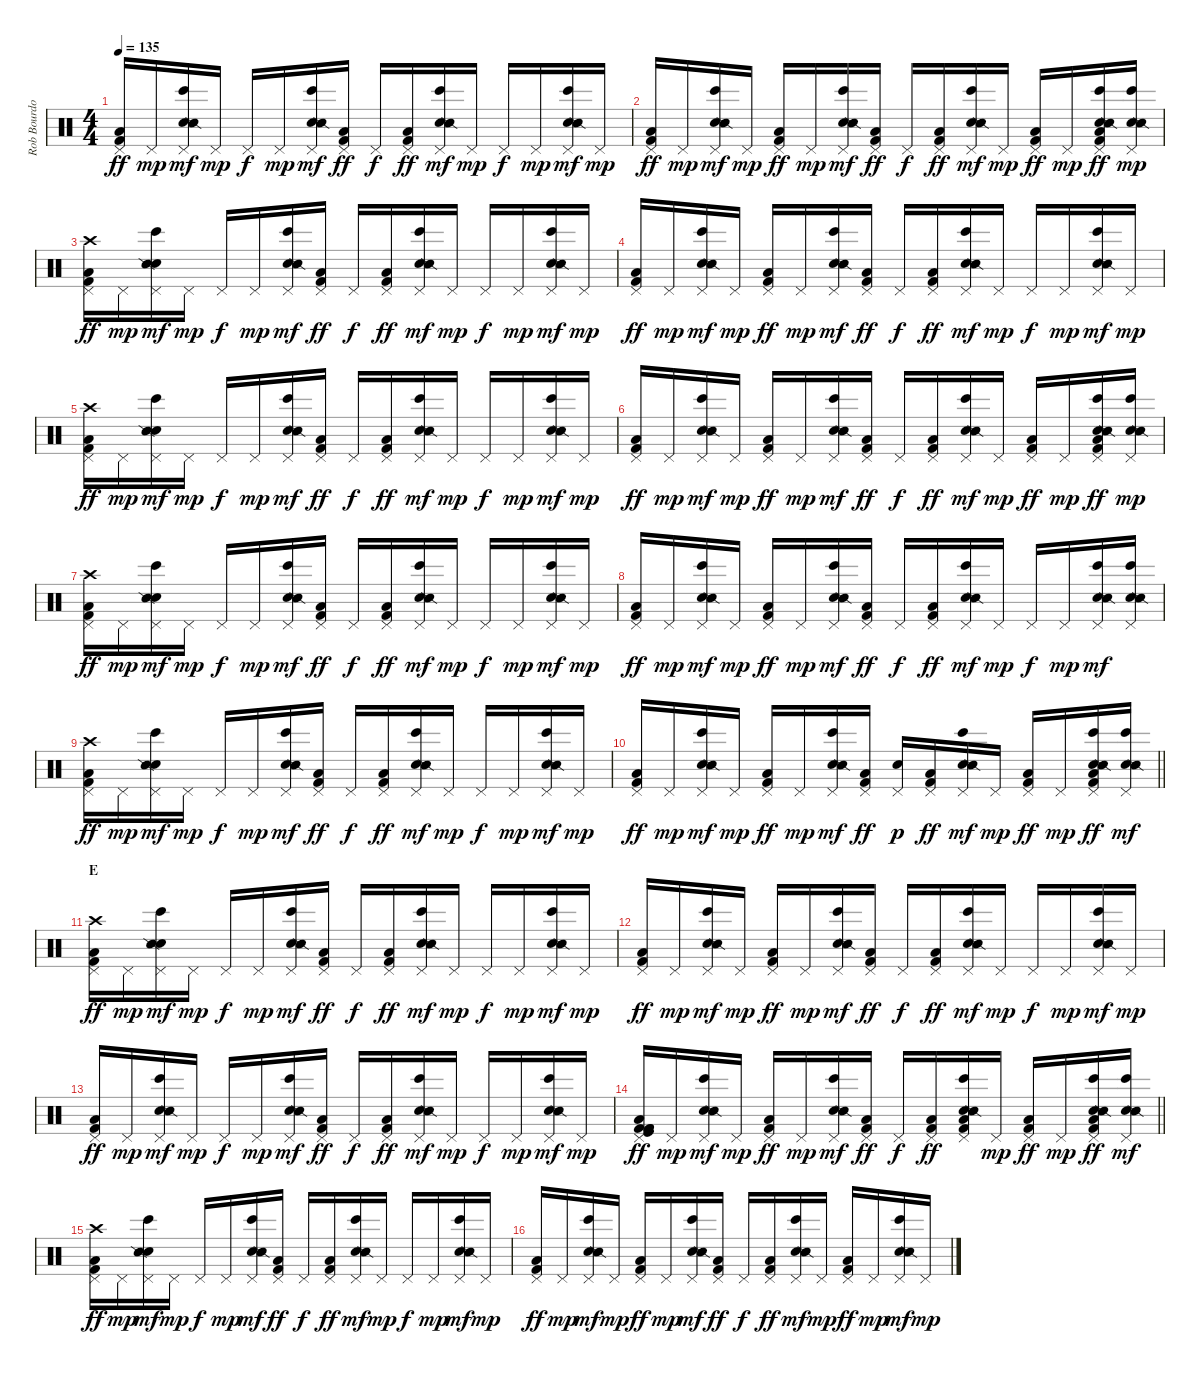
\track ("Rob Bourdon - Beats & Drums" "Rob Bourdo") {instrument percussion}
\staff {score}
\articulation defaults
\ts (4 4)
\tempo 135
\clef neutral
\ks c
("Low Floor Tom (hit)" "Pedal Hi-Hat (hit)" "Kick (hit) 2").16{dy ff} "Pedal Hi-Hat (hit)".16{dy mp} ("Bongo High (hit)" "Electric Snare (hit)" "Snare (side stick) 2" "Pedal Hi-Hat (hit)").16{dy mf} "Pedal Hi-Hat (hit)".16{dy mp} "Pedal Hi-Hat (hit)".16{dy f} "Pedal Hi-Hat (hit)".16{dy mp} ("Bongo High (hit)" "Electric Snare (hit)" "Snare (side stick) 2" "Pedal Hi-Hat (hit)").16{dy mf} ("Low Floor Tom (hit)" "Pedal Hi-Hat (hit)" "Kick (hit) 2").16{dy ff} "Pedal Hi-Hat (hit)".16{dy f} ("Low Floor Tom (hit)" "Pedal Hi-Hat (hit)" "Kick (hit) 2").16{dy ff} ("Bongo High (hit)" "Electric Snare (hit)" "Snare (side stick) 2" "Pedal Hi-Hat (hit)").16{dy mf} "Pedal Hi-Hat (hit)".16{dy mp} "Pedal Hi-Hat (hit)".16{dy f} "Pedal Hi-Hat (hit)".16{dy mp} ("Bongo High (hit)" "Electric Snare (hit)" "Snare (side stick) 2" "Pedal Hi-Hat (hit)").16{dy mf} "Pedal Hi-Hat (hit)".16{dy mp} |
("Low Floor Tom (hit)" "Pedal Hi-Hat (hit)" "Kick (hit) 2").16{dy ff} "Pedal Hi-Hat (hit)".16{dy mp} ("Bongo High (hit)" "Electric Snare (hit)" "Snare (side stick) 2" "Pedal Hi-Hat (hit)").16{dy mf} "Pedal Hi-Hat (hit)".16{dy mp} ("Low Floor Tom (hit)" "Pedal Hi-Hat (hit)" "Kick (hit) 2").16{dy ff} "Pedal Hi-Hat (hit)".16{dy mp} ("Bongo High (hit)" "Electric Snare (hit)" "Snare (side stick) 2" "Pedal Hi-Hat (hit)").16{dy mf} ("Low Floor Tom (hit)" "Pedal Hi-Hat (hit)" "Kick (hit) 2").16{dy ff} "Pedal Hi-Hat (hit)".16{dy f} ("Low Floor Tom (hit)" "Pedal Hi-Hat (hit)" "Kick (hit) 2").16{dy ff} ("Bongo High (hit)" "Electric Snare (hit)" "Snare (side stick) 2" "Pedal Hi-Hat (hit)").16{dy mf} "Pedal Hi-Hat (hit)".16{dy mp} ("Low Floor Tom (hit)" "Pedal Hi-Hat (hit)" "Kick (hit) 2").16{dy ff} "Pedal Hi-Hat (hit)".16{dy mp} ("Low Floor Tom (hit)" "Bongo High (hit)" "Electric Snare (hit)" "Snare (side stick) 2" "Pedal Hi-Hat (hit)" "Kick (hit) 2").16{dy ff} ("Bongo High (hit)" "Electric Snare (hit)" "Snare (side stick) 2" "Pedal Hi-Hat (hit)").16{dy mp} |
("Crash high (hit)" "Low Floor Tom (hit)" "Pedal Hi-Hat (hit)" "Kick (hit) 2").16{dy ff} "Pedal Hi-Hat (hit)".16{dy mp} ("Bongo High (hit)" "Electric Snare (hit)" "Snare (side stick) 2" "Pedal Hi-Hat (hit)").16{dy mf} "Pedal Hi-Hat (hit)".16{dy mp} "Pedal Hi-Hat (hit)".16{dy f} "Pedal Hi-Hat (hit)".16{dy mp} ("Bongo High (hit)" "Electric Snare (hit)" "Snare (side stick) 2" "Pedal Hi-Hat (hit)").16{dy mf} ("Low Floor Tom (hit)" "Pedal Hi-Hat (hit)" "Kick (hit) 2").16{dy ff} "Pedal Hi-Hat (hit)".16{dy f} ("Low Floor Tom (hit)" "Pedal Hi-Hat (hit)" "Kick (hit) 2").16{dy ff} ("Bongo High (hit)" "Electric Snare (hit)" "Snare (side stick) 2" "Pedal Hi-Hat (hit)").16{dy mf} "Pedal Hi-Hat (hit)".16{dy mp} "Pedal Hi-Hat (hit)".16{dy f} "Pedal Hi-Hat (hit)".16{dy mp} ("Bongo High (hit)" "Electric Snare (hit)" "Snare (side stick) 2" "Pedal Hi-Hat (hit)").16{dy mf} "Pedal Hi-Hat (hit)".16{dy mp} |
("Low Floor Tom (hit)" "Pedal Hi-Hat (hit)" "Kick (hit) 2").16{dy ff} "Pedal Hi-Hat (hit)".16{dy mp} ("Bongo High (hit)" "Electric Snare (hit)" "Snare (side stick) 2" "Pedal Hi-Hat (hit)").16{dy mf} "Pedal Hi-Hat (hit)".16{dy mp} ("Low Floor Tom (hit)" "Pedal Hi-Hat (hit)" "Kick (hit) 2").16{dy ff} "Pedal Hi-Hat (hit)".16{dy mp} ("Bongo High (hit)" "Electric Snare (hit)" "Snare (side stick) 2" "Pedal Hi-Hat (hit)").16{dy mf} ("Low Floor Tom (hit)" "Pedal Hi-Hat (hit)" "Kick (hit) 2").16{dy ff} "Pedal Hi-Hat (hit)".16{dy f} ("Low Floor Tom (hit)" "Pedal Hi-Hat (hit)" "Kick (hit) 2").16{dy ff} ("Bongo High (hit)" "Electric Snare (hit)" "Snare (side stick) 2" "Pedal Hi-Hat (hit)").16{dy mf} "Pedal Hi-Hat (hit)".16{dy mp} "Pedal Hi-Hat (hit)".16{dy f} "Pedal Hi-Hat (hit)".16{dy mp} ("Bongo High (hit)" "Electric Snare (hit)" "Snare (side stick) 2" "Pedal Hi-Hat (hit)").16{dy mf} "Pedal Hi-Hat (hit)".16{dy mp} |
("Crash high (hit)" "Low Floor Tom (hit)" "Pedal Hi-Hat (hit)" "Kick (hit) 2").16{dy ff} "Pedal Hi-Hat (hit)".16{dy mp} ("Bongo High (hit)" "Electric Snare (hit)" "Snare (side stick) 2" "Pedal Hi-Hat (hit)").16{dy mf} "Pedal Hi-Hat (hit)".16{dy mp} "Pedal Hi-Hat (hit)".16{dy f} "Pedal Hi-Hat (hit)".16{dy mp} ("Bongo High (hit)" "Electric Snare (hit)" "Snare (side stick) 2" "Pedal Hi-Hat (hit)").16{dy mf} ("Low Floor Tom (hit)" "Pedal Hi-Hat (hit)" "Kick (hit) 2").16{dy ff} "Pedal Hi-Hat (hit)".16{dy f} ("Low Floor Tom (hit)" "Pedal Hi-Hat (hit)" "Kick (hit) 2").16{dy ff} ("Bongo High (hit)" "Electric Snare (hit)" "Snare (side stick) 2" "Pedal Hi-Hat (hit)").16{dy mf} "Pedal Hi-Hat (hit)".16{dy mp} "Pedal Hi-Hat (hit)".16{dy f} "Pedal Hi-Hat (hit)".16{dy mp} ("Bongo High (hit)" "Electric Snare (hit)" "Snare (side stick) 2" "Pedal Hi-Hat (hit)").16{dy mf} "Pedal Hi-Hat (hit)".16{dy mp} |
("Low Floor Tom (hit)" "Pedal Hi-Hat (hit)" "Kick (hit) 2").16{dy ff} "Pedal Hi-Hat (hit)".16{dy mp} ("Bongo High (hit)" "Electric Snare (hit)" "Snare (side stick) 2" "Pedal Hi-Hat (hit)").16{dy mf} "Pedal Hi-Hat (hit)".16{dy mp} ("Low Floor Tom (hit)" "Pedal Hi-Hat (hit)" "Kick (hit) 2").16{dy ff} "Pedal Hi-Hat (hit)".16{dy mp} ("Bongo High (hit)" "Electric Snare (hit)" "Snare (side stick) 2" "Pedal Hi-Hat (hit)").16{dy mf} ("Low Floor Tom (hit)" "Pedal Hi-Hat (hit)" "Kick (hit) 2").16{dy ff} "Pedal Hi-Hat (hit)".16{dy f} ("Low Floor Tom (hit)" "Pedal Hi-Hat (hit)" "Kick (hit) 2").16{dy ff} ("Bongo High (hit)" "Electric Snare (hit)" "Snare (side stick) 2" "Pedal Hi-Hat (hit)").16{dy mf} "Pedal Hi-Hat (hit)".16{dy mp} ("Low Floor Tom (hit)" "Pedal Hi-Hat (hit)" "Kick (hit) 2").16{dy ff} "Pedal Hi-Hat (hit)".16{dy mp} ("Low Floor Tom (hit)" "Bongo High (hit)" "Electric Snare (hit)" "Snare (side stick) 2" "Pedal Hi-Hat (hit)" "Kick (hit) 2").16{dy ff} ("Bongo High (hit)" "Electric Snare (hit)" "Snare (side stick) 2" "Pedal Hi-Hat (hit)").16{dy mp} |
("Crash high (hit)" "Low Floor Tom (hit)" "Pedal Hi-Hat (hit)" "Kick (hit) 2").16{dy ff} "Pedal Hi-Hat (hit)".16{dy mp} ("Bongo High (hit)" "Electric Snare (hit)" "Snare (side stick) 2" "Pedal Hi-Hat (hit)").16{dy mf} "Pedal Hi-Hat (hit)".16{dy mp} "Pedal Hi-Hat (hit)".16{dy f} "Pedal Hi-Hat (hit)".16{dy mp} ("Bongo High (hit)" "Electric Snare (hit)" "Snare (side stick) 2" "Pedal Hi-Hat (hit)").16{dy mf} ("Low Floor Tom (hit)" "Pedal Hi-Hat (hit)" "Kick (hit) 2").16{dy ff} "Pedal Hi-Hat (hit)".16{dy f} ("Low Floor Tom (hit)" "Pedal Hi-Hat (hit)" "Kick (hit) 2").16{dy ff} ("Bongo High (hit)" "Electric Snare (hit)" "Snare (side stick) 2" "Pedal Hi-Hat (hit)").16{dy mf} "Pedal Hi-Hat (hit)".16{dy mp} "Pedal Hi-Hat (hit)".16{dy f} "Pedal Hi-Hat (hit)".16{dy mp} ("Bongo High (hit)" "Electric Snare (hit)" "Snare (side stick) 2" "Pedal Hi-Hat (hit)").16{dy mf} "Pedal Hi-Hat (hit)".16{dy mp} |
("Low Floor Tom (hit)" "Pedal Hi-Hat (hit)" "Kick (hit) 2").16{dy ff} "Pedal Hi-Hat (hit)".16{dy mp} ("Bongo High (hit)" "Electric Snare (hit)" "Snare (side stick) 2" "Pedal Hi-Hat (hit)").16{dy mf} "Pedal Hi-Hat (hit)".16{dy mp} ("Low Floor Tom (hit)" "Pedal Hi-Hat (hit)" "Kick (hit) 2").16{dy ff} "Pedal Hi-Hat (hit)".16{dy mp} ("Bongo High (hit)" "Electric Snare (hit)" "Snare (side stick) 2" "Pedal Hi-Hat (hit)").16{dy mf} ("Low Floor Tom (hit)" "Pedal Hi-Hat (hit)" "Kick (hit) 2").16{dy ff} "Pedal Hi-Hat (hit)".16{dy f} ("Low Floor Tom (hit)" "Pedal Hi-Hat (hit)" "Kick (hit) 2").16{dy ff} ("Bongo High (hit)" "Electric Snare (hit)" "Snare (side stick) 2" "Pedal Hi-Hat (hit)").16{dy mf} "Pedal Hi-Hat (hit)".16{dy mp} "Pedal Hi-Hat (hit)".16{dy f} "Pedal Hi-Hat (hit)".16{dy mp} ("Bongo High (hit)" "Electric Snare (hit)" "Snare (side stick) 2" "Pedal Hi-Hat (hit)").16{dy mf} ("Bongo High (hit)" "Electric Snare (hit)" "Snare (side stick) 2" "Pedal Hi-Hat (hit)").16 |
("Crash high (hit)" "Low Floor Tom (hit)" "Pedal Hi-Hat (hit)" "Kick (hit) 2").16{dy ff} "Pedal Hi-Hat (hit)".16{dy mp} ("Bongo High (hit)" "Electric Snare (hit)" "Snare (side stick) 2" "Pedal Hi-Hat (hit)").16{dy mf} "Pedal Hi-Hat (hit)".16{dy mp} "Pedal Hi-Hat (hit)".16{dy f} "Pedal Hi-Hat (hit)".16{dy mp} ("Bongo High (hit)" "Electric Snare (hit)" "Snare (side stick) 2" "Pedal Hi-Hat (hit)").16{dy mf} ("Low Floor Tom (hit)" "Pedal Hi-Hat (hit)" "Kick (hit) 2").16{dy ff} "Pedal Hi-Hat (hit)".16{dy f} ("Low Floor Tom (hit)" "Pedal Hi-Hat (hit)" "Kick (hit) 2").16{dy ff} ("Bongo High (hit)" "Electric Snare (hit)" "Snare (side stick) 2" "Pedal Hi-Hat (hit)").16{dy mf} "Pedal Hi-Hat (hit)".16{dy mp} "Pedal Hi-Hat (hit)".16{dy f} "Pedal Hi-Hat (hit)".16{dy mp} ("Bongo High (hit)" "Electric Snare (hit)" "Snare (side stick) 2" "Pedal Hi-Hat (hit)").16{dy mf} "Pedal Hi-Hat (hit)".16{dy mp} |
\barLineRight lightlight
("Low Floor Tom (hit)" "Pedal Hi-Hat (hit)" "Kick (hit) 2").16{dy ff} "Pedal Hi-Hat (hit)".16{dy mp} ("Bongo High (hit)" "Electric Snare (hit)" "Snare (side stick) 2" "Pedal Hi-Hat (hit)").16{dy mf} "Pedal Hi-Hat (hit)".16{dy mp} ("Low Floor Tom (hit)" "Pedal Hi-Hat (hit)" "Kick (hit) 2").16{dy ff} "Pedal Hi-Hat (hit)".16{dy mp} ("Bongo High (hit)" "Electric Snare (hit)" "Snare (side stick) 2" "Pedal Hi-Hat (hit)").16{dy mf} ("Low Floor Tom (hit)" "Pedal Hi-Hat (hit)" "Kick (hit) 2").16{dy ff} ("Electric Snare (hit)" "Pedal Hi-Hat (hit)").16{dy p} ("Low Floor Tom (hit)" "Pedal Hi-Hat (hit)" "Kick (hit) 2").16{dy ff} ("Bongo High (hit)" "Electric Snare (hit)" "Snare (side stick) 2" "Pedal Hi-Hat (hit)").16{dy mf} "Pedal Hi-Hat (hit)".16{dy mp} ("Low Floor Tom (hit)" "Pedal Hi-Hat (hit)" "Kick (hit) 2").16{dy ff} "Pedal Hi-Hat (hit)".16{dy mp} ("Low Floor Tom (hit)" "Bongo High (hit)" "Electric Snare (hit)" "Snare (side stick) 2" "Pedal Hi-Hat (hit)" "Kick (hit) 2").16{dy ff} ("Bongo High (hit)" "Electric Snare (hit)" "Snare (side stick) 2" "Pedal Hi-Hat (hit)").16{dy mf} |
\section ("" "E")
("Crash high (hit)" "Low Floor Tom (hit)" "Pedal Hi-Hat (hit)" "Kick (hit) 2").16{dy ff} "Pedal Hi-Hat (hit)".16{dy mp} ("Bongo High (hit)" "Electric Snare (hit)" "Snare (side stick) 2" "Pedal Hi-Hat (hit)").16{dy mf} "Pedal Hi-Hat (hit)".16{dy mp} "Pedal Hi-Hat (hit)".16{dy f} "Pedal Hi-Hat (hit)".16{dy mp} ("Bongo High (hit)" "Electric Snare (hit)" "Snare (side stick) 2" "Pedal Hi-Hat (hit)").16{dy mf} ("Low Floor Tom (hit)" "Pedal Hi-Hat (hit)" "Kick (hit) 2").16{dy ff} "Pedal Hi-Hat (hit)".16{dy f} ("Low Floor Tom (hit)" "Pedal Hi-Hat (hit)" "Kick (hit) 2").16{dy ff} ("Bongo High (hit)" "Electric Snare (hit)" "Snare (side stick) 2" "Pedal Hi-Hat (hit)").16{dy mf} "Pedal Hi-Hat (hit)".16{dy mp} "Pedal Hi-Hat (hit)".16{dy f} "Pedal Hi-Hat (hit)".16{dy mp} ("Bongo High (hit)" "Electric Snare (hit)" "Snare (side stick) 2" "Pedal Hi-Hat (hit)").16{dy mf} "Pedal Hi-Hat (hit)".16{dy mp} |
("Low Floor Tom (hit)" "Pedal Hi-Hat (hit)" "Kick (hit) 2").16{dy ff} "Pedal Hi-Hat (hit)".16{dy mp} ("Bongo High (hit)" "Electric Snare (hit)" "Snare (side stick) 2" "Pedal Hi-Hat (hit)").16{dy mf} "Pedal Hi-Hat (hit)".16{dy mp} ("Low Floor Tom (hit)" "Pedal Hi-Hat (hit)" "Kick (hit) 2").16{dy ff} "Pedal Hi-Hat (hit)".16{dy mp} ("Bongo High (hit)" "Electric Snare (hit)" "Snare (side stick) 2" "Pedal Hi-Hat (hit)").16{dy mf} ("Low Floor Tom (hit)" "Pedal Hi-Hat (hit)" "Kick (hit) 2").16{dy ff} "Pedal Hi-Hat (hit)".16{dy f} ("Low Floor Tom (hit)" "Pedal Hi-Hat (hit)" "Kick (hit) 2").16{dy ff} ("Bongo High (hit)" "Electric Snare (hit)" "Snare (side stick) 2" "Pedal Hi-Hat (hit)").16{dy mf} "Pedal Hi-Hat (hit)".16{dy mp} "Pedal Hi-Hat (hit)".16{dy f} "Pedal Hi-Hat (hit)".16{dy mp} ("Bongo High (hit)" "Electric Snare (hit)" "Snare (side stick) 2" "Pedal Hi-Hat (hit)").16{dy mf} "Pedal Hi-Hat (hit)".16{dy mp} |
("Low Floor Tom (hit)" "Pedal Hi-Hat (hit)" "Kick (hit) 2").16{dy ff} "Pedal Hi-Hat (hit)".16{dy mp} ("Bongo High (hit)" "Electric Snare (hit)" "Snare (side stick) 2" "Pedal Hi-Hat (hit)").16{dy mf} "Pedal Hi-Hat (hit)".16{dy mp} "Pedal Hi-Hat (hit)".16{dy f} "Pedal Hi-Hat (hit)".16{dy mp} ("Bongo High (hit)" "Electric Snare (hit)" "Snare (side stick) 2" "Pedal Hi-Hat (hit)").16{dy mf} ("Low Floor Tom (hit)" "Pedal Hi-Hat (hit)" "Kick (hit) 2").16{dy ff} "Pedal Hi-Hat (hit)".16{dy f} ("Low Floor Tom (hit)" "Pedal Hi-Hat (hit)" "Kick (hit) 2").16{dy ff} ("Bongo High (hit)" "Electric Snare (hit)" "Snare (side stick) 2" "Pedal Hi-Hat (hit)").16{dy mf} "Pedal Hi-Hat (hit)".16{dy mp} "Pedal Hi-Hat (hit)".16{dy f} "Pedal Hi-Hat (hit)".16{dy mp} ("Bongo High (hit)" "Electric Snare (hit)" "Snare (side stick) 2" "Pedal Hi-Hat (hit)").16{dy mf} "Pedal Hi-Hat (hit)".16{dy mp} |
\barLineRight lightlight
("Low Floor Tom (hit)" "Kick (hit) 2" "Kick (hit) 2" "Kick (hit)" "Pedal Hi-Hat (hit)" "Kick (hit) 2").16{dy ff} "Pedal Hi-Hat (hit)".16{dy mp} ("Bongo High (hit)" "Electric Snare (hit)" "Snare (side stick) 2" "Pedal Hi-Hat (hit)").16{dy mf} "Pedal Hi-Hat (hit)".16{dy mp} ("Low Floor Tom (hit)" "Pedal Hi-Hat (hit)" "Kick (hit) 2").16{dy ff} "Pedal Hi-Hat (hit)".16{dy mp} ("Bongo High (hit)" "Electric Snare (hit)" "Snare (side stick) 2" "Pedal Hi-Hat (hit)").16{dy mf} ("Low Floor Tom (hit)" "Pedal Hi-Hat (hit)" "Kick (hit) 2").16{dy ff} "Pedal Hi-Hat (hit)".16{dy f} ("Low Floor Tom (hit)" "Pedal Hi-Hat (hit)" "Kick (hit) 2").16{dy ff} ("Low Floor Tom (hit)" "Bongo High (hit)" "Electric Snare (hit)" "Snare (side stick) 2" "Pedal Hi-Hat (hit)" "Kick (hit) 2").16 "Pedal Hi-Hat (hit)".16{dy mp} ("Low Floor Tom (hit)" "Pedal Hi-Hat (hit)" "Kick (hit) 2").16{dy ff} "Pedal Hi-Hat (hit)".16{dy mp} ("Low Floor Tom (hit)" "Bongo High (hit)" "Electric Snare (hit)" "Snare (side stick) 2" "Pedal Hi-Hat (hit)" "Kick (hit) 2").16{dy ff} ("Bongo High (hit)" "Electric Snare (hit)" "Snare (side stick) 2" "Pedal Hi-Hat (hit)").16{dy mf} |
("Crash high (hit)" "Low Floor Tom (hit)" "Pedal Hi-Hat (hit)" "Kick (hit) 2").16{dy ff} "Pedal Hi-Hat (hit)".16{dy mp} ("Bongo High (hit)" "Electric Snare (hit)" "Snare (side stick) 2" "Pedal Hi-Hat (hit)").16{dy mf} "Pedal Hi-Hat (hit)".16{dy mp} "Pedal Hi-Hat (hit)".16{dy f} "Pedal Hi-Hat (hit)".16{dy mp} ("Bongo High (hit)" "Electric Snare (hit)" "Snare (side stick) 2" "Pedal Hi-Hat (hit)").16{dy mf} ("Low Floor Tom (hit)" "Pedal Hi-Hat (hit)" "Kick (hit) 2").16{dy ff} "Pedal Hi-Hat (hit)".16{dy f} ("Low Floor Tom (hit)" "Pedal Hi-Hat (hit)" "Kick (hit) 2").16{dy ff} ("Bongo High (hit)" "Electric Snare (hit)" "Snare (side stick) 2" "Pedal Hi-Hat (hit)").16{dy mf} "Pedal Hi-Hat (hit)".16{dy mp} "Pedal Hi-Hat (hit)".16{dy f} "Pedal Hi-Hat (hit)".16{dy mp} ("Bongo High (hit)" "Electric Snare (hit)" "Snare (side stick) 2" "Pedal Hi-Hat (hit)").16{dy mf} "Pedal Hi-Hat (hit)".16{dy mp} |
("Low Floor Tom (hit)" "Pedal Hi-Hat (hit)" "Kick (hit) 2").16{dy ff} "Pedal Hi-Hat (hit)".16{dy mp} ("Bongo High (hit)" "Electric Snare (hit)" "Snare (side stick) 2" "Pedal Hi-Hat (hit)").16{dy mf} "Pedal Hi-Hat (hit)".16{dy mp} ("Low Floor Tom (hit)" "Pedal Hi-Hat (hit)" "Kick (hit) 2").16{dy ff} "Pedal Hi-Hat (hit)".16{dy mp} ("Bongo High (hit)" "Electric Snare (hit)" "Snare (side stick) 2" "Pedal Hi-Hat (hit)").16{dy mf} ("Low Floor Tom (hit)" "Pedal Hi-Hat (hit)" "Kick (hit) 2").16{dy ff} "Pedal Hi-Hat (hit)".16{dy f} ("Low Floor Tom (hit)" "Pedal Hi-Hat (hit)" "Kick (hit) 2").16{dy ff} ("Bongo High (hit)" "Electric Snare (hit)" "Snare (side stick) 2" "Pedal Hi-Hat (hit)").16{dy mf} "Pedal Hi-Hat (hit)".16{dy mp} ("Low Floor Tom (hit)" "Pedal Hi-Hat (hit)" "Kick (hit) 2").16{dy ff} "Pedal Hi-Hat (hit)".16{dy mp} ("Bongo High (hit)" "Electric Snare (hit)" "Snare (side stick) 2" "Pedal Hi-Hat (hit)").16{dy mf} "Pedal Hi-Hat (hit)".16{dy mp}
